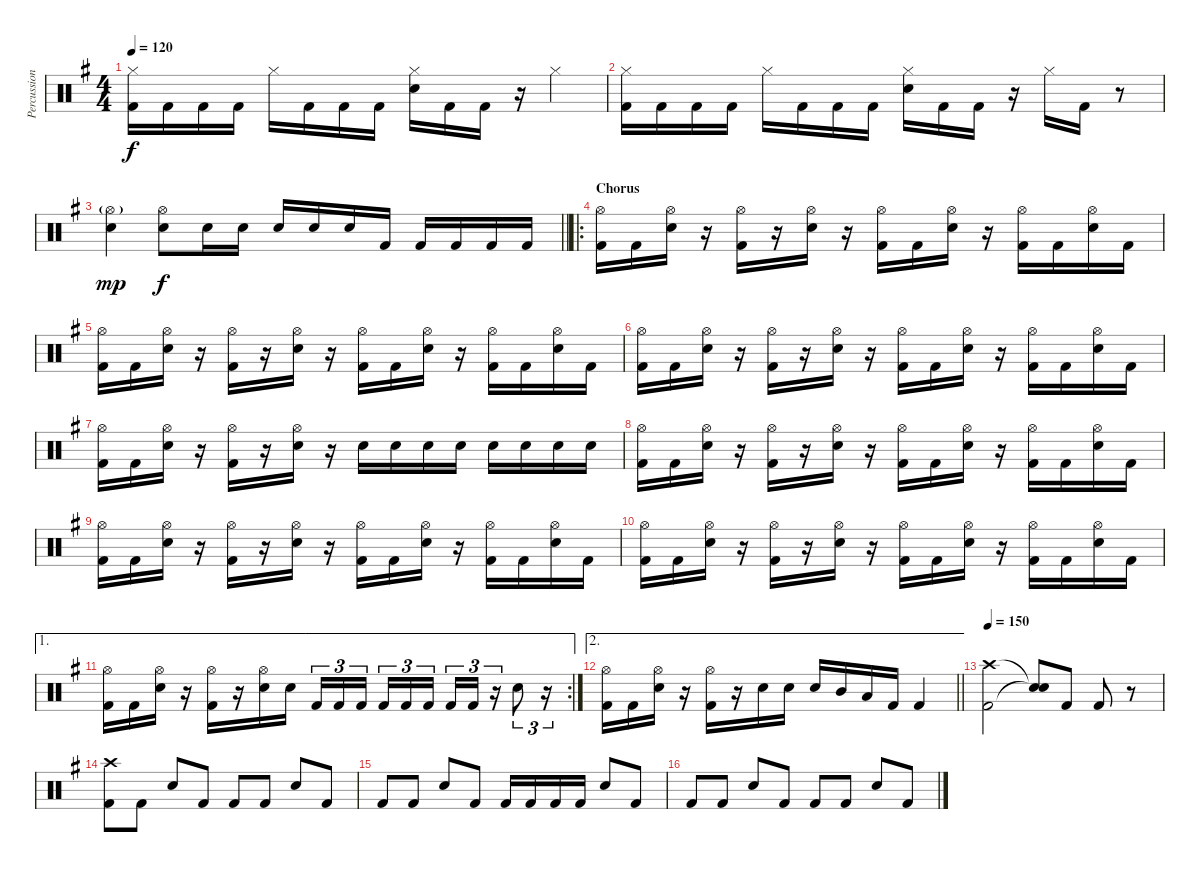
\track ("Percussion" "Percussion") {instrument percussion}
\staff {score}
\articulation defaults
\ts (4 4)
\tempo 120
\clef neutral
\ks g
("Hi-Hat (closed)" "Kick (hit) 2").16{dy f} "Kick (hit) 2".16 "Kick (hit) 2".16 "Kick (hit) 2".16 "Hi-Hat (closed)".16 "Kick (hit) 2".16 "Kick (hit) 2".16 "Kick (hit) 2".16 ("Hi-Hat (closed)" "Snare (hit) 2").16 "Kick (hit) 2".16 "Kick (hit) 2".16 r.16 "Hi-Hat (closed)".4 |
("Hi-Hat (closed)" "Kick (hit) 2").16 "Kick (hit) 2".16 "Kick (hit) 2".16 "Kick (hit) 2".16 "Hi-Hat (closed)".16 "Kick (hit) 2".16 "Kick (hit) 2".16 "Kick (hit) 2".16 ("Hi-Hat (closed)" "Snare (hit) 2").16 "Kick (hit) 2".16 "Kick (hit) 2".16 r.16 "Hi-Hat (closed)".16 "Kick (hit) 2".16 r.8 |
\barLineRight lightlight
("Hi-Hat (open)"{g} "Snare (hit) 2").4{dy mp} ("Hi-Hat (open)" "Snare (hit) 2").8{dy f} "Snare (hit) 2".16 "Snare (hit) 2".16 "Snare (hit) 2".16 "Snare (hit) 2".16 "Snare (hit) 2".16 "Kick (hit) 2".16 "Kick (hit) 2".16 "Kick (hit) 2".16 "Kick (hit) 2".16 "Kick (hit) 2".16 |
\ro
\section ("" "Chorus")
("Hi-Hat (open)" "Kick (hit) 2").16 "Kick (hit) 2".16 ("Hi-Hat (open)" "Snare (hit) 2").16 r.16 ("Hi-Hat (open)" "Kick (hit) 2").16 r.16 ("Hi-Hat (open)" "Snare (hit) 2").16 r.16 ("Hi-Hat (open)" "Kick (hit) 2").16 "Kick (hit) 2".16 ("Hi-Hat (open)" "Snare (hit) 2").16 r.16 ("Hi-Hat (open)" "Kick (hit) 2").16 "Kick (hit) 2".16 ("Hi-Hat (open)" "Snare (hit) 2").16 "Kick (hit) 2".16 |
("Hi-Hat (open)" "Kick (hit) 2").16 "Kick (hit) 2".16 ("Hi-Hat (open)" "Snare (hit) 2").16 r.16 ("Hi-Hat (open)" "Kick (hit) 2").16 r.16 ("Hi-Hat (open)" "Snare (hit) 2").16 r.16 ("Hi-Hat (open)" "Kick (hit) 2").16 "Kick (hit) 2".16 ("Hi-Hat (open)" "Snare (hit) 2").16 r.16 ("Hi-Hat (open)" "Kick (hit) 2").16 "Kick (hit) 2".16 ("Hi-Hat (open)" "Snare (hit) 2").16 "Kick (hit) 2".16 |
("Hi-Hat (open)" "Kick (hit) 2").16 "Kick (hit) 2".16 ("Hi-Hat (open)" "Snare (hit) 2").16 r.16 ("Hi-Hat (open)" "Kick (hit) 2").16 r.16 ("Hi-Hat (open)" "Snare (hit) 2").16 r.16 ("Hi-Hat (open)" "Kick (hit) 2").16 "Kick (hit) 2".16 ("Hi-Hat (open)" "Snare (hit) 2").16 r.16 ("Hi-Hat (open)" "Kick (hit) 2").16 "Kick (hit) 2".16 ("Hi-Hat (open)" "Snare (hit) 2").16 "Kick (hit) 2".16 |
("Hi-Hat (open)" "Kick (hit) 2").16 "Kick (hit) 2".16 ("Hi-Hat (open)" "Snare (hit) 2").16 r.16 ("Hi-Hat (open)" "Kick (hit) 2").16 r.16 ("Hi-Hat (open)" "Snare (hit) 2").16 r.16 "Snare (hit) 2".16 "Snare (hit) 2".16 "Snare (hit) 2".16 "Snare (hit) 2".16 "Snare (hit) 2".16 "Snare (hit) 2".16 "Snare (hit) 2".16 "Snare (hit) 2".16 |
("Hi-Hat (open)" "Kick (hit) 2").16 "Kick (hit) 2".16 ("Hi-Hat (open)" "Snare (hit) 2").16 r.16 ("Hi-Hat (open)" "Kick (hit) 2").16 r.16 ("Hi-Hat (open)" "Snare (hit) 2").16 r.16 ("Hi-Hat (open)" "Kick (hit) 2").16 "Kick (hit) 2".16 ("Hi-Hat (open)" "Snare (hit) 2").16 r.16 ("Hi-Hat (open)" "Kick (hit) 2").16 "Kick (hit) 2".16 ("Hi-Hat (open)" "Snare (hit) 2").16 "Kick (hit) 2".16 |
("Hi-Hat (open)" "Kick (hit) 2").16 "Kick (hit) 2".16 ("Hi-Hat (open)" "Snare (hit) 2").16 r.16 ("Hi-Hat (open)" "Kick (hit) 2").16 r.16 ("Hi-Hat (open)" "Snare (hit) 2").16 r.16 ("Hi-Hat (open)" "Kick (hit) 2").16 "Kick (hit) 2".16 ("Hi-Hat (open)" "Snare (hit) 2").16 r.16 ("Hi-Hat (open)" "Kick (hit) 2").16 "Kick (hit) 2".16 ("Hi-Hat (open)" "Snare (hit) 2").16 "Kick (hit) 2".16 |
("Hi-Hat (open)" "Kick (hit) 2").16 "Kick (hit) 2".16 ("Hi-Hat (open)" "Snare (hit) 2").16 r.16 ("Hi-Hat (open)" "Kick (hit) 2").16 r.16 ("Hi-Hat (open)" "Snare (hit) 2").16 r.16 ("Hi-Hat (open)" "Kick (hit) 2").16 "Kick (hit) 2".16 ("Hi-Hat (open)" "Snare (hit) 2").16 r.16 ("Hi-Hat (open)" "Kick (hit) 2").16 "Kick (hit) 2".16 ("Hi-Hat (open)" "Snare (hit) 2").16 "Kick (hit) 2".16 |
\ae 1
\rc 2
("Hi-Hat (open)" "Kick (hit) 2").16 "Kick (hit) 2".16 ("Hi-Hat (open)" "Snare (hit) 2").16 r.16 ("Hi-Hat (open)" "Kick (hit) 2").16 r.16 ("Hi-Hat (open)" "Snare (hit) 2").16 "Snare (hit) 2".16 "Kick (hit) 2".16{tu (3 2)} "Kick (hit) 2".16{tu (3 2)} "Kick (hit) 2".16{tu (3 2)} "Kick (hit) 2".16{tu (3 2)} "Kick (hit) 2".16{tu (3 2)} "Kick (hit) 2".16{tu (3 2)} "Kick (hit) 2".16{tu (3 2)} "Kick (hit) 2".16{tu (3 2)} r.16{tu (3 2)} "Snare (hit) 2".8{tu (3 2)} r.16{tu (3 2)} |
\ae 2
\barLineRight lightlight
("Hi-Hat (open)" "Kick (hit) 2").16 "Kick (hit) 2".16 ("Hi-Hat (open)" "Snare (hit) 2").16 r.16 ("Hi-Hat (open)" "Kick (hit) 2").16 r.16 "Snare (hit) 2".16 "Snare (hit) 2".16 "Snare (hit) 2".16 "Mid Tom (hit)".16 "Low Tom (hit)".16 "Kick (hit) 2".16 "Kick (hit) 2".4 |
\section ("" "")
\tempo 150
("Crash high (hit)" "Kick (hit) 2").2 ("Snare (hit)"{t} "Snare (hit)"{t}).8 "Kick (hit) 2".8 "Kick (hit) 2".8 r.8 |
("Crash high (hit)" "Kick (hit) 2").8 "Kick (hit) 2".8 "Snare (hit) 2".8 "Kick (hit) 2".8 "Kick (hit) 2".8 "Kick (hit) 2".8 "Snare (hit) 2".8 "Kick (hit) 2".8 |
"Kick (hit) 2".8 "Kick (hit) 2".8 "Snare (hit) 2".8 "Kick (hit) 2".8 "Kick (hit) 2".16 "Kick (hit) 2".16 "Kick (hit) 2".16 "Kick (hit) 2".16 "Snare (hit) 2".8 "Kick (hit) 2".8 |
"Kick (hit) 2".8 "Kick (hit) 2".8 "Snare (hit) 2".8 "Kick (hit) 2".8 "Kick (hit) 2".8 "Kick (hit) 2".8 "Snare (hit) 2".8 "Kick (hit) 2".8
